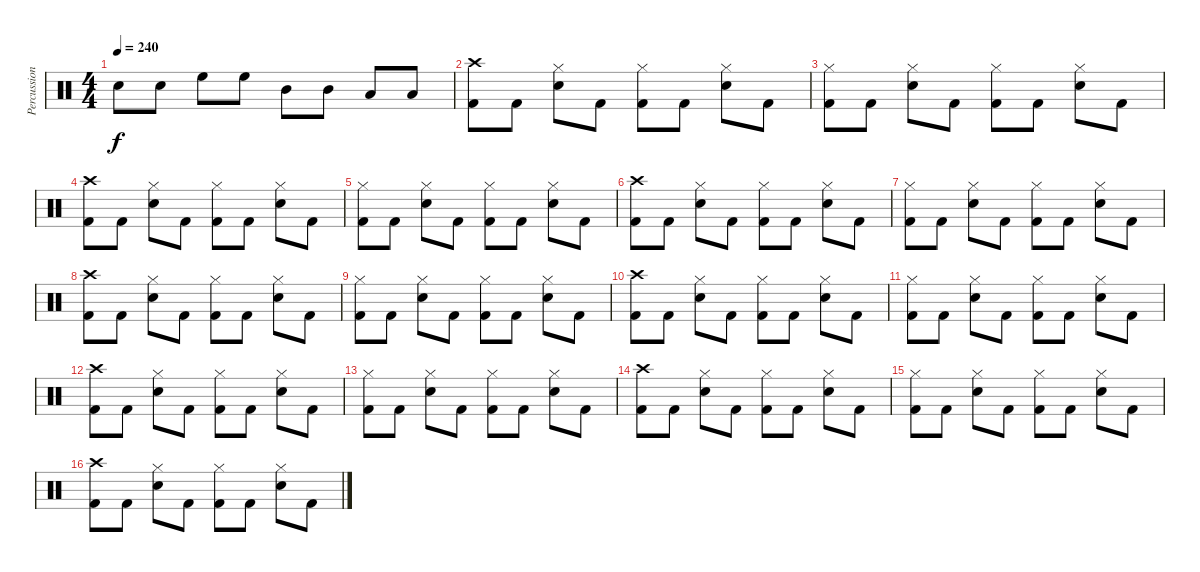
\track ("Percussion" "Percussion") {instrument percussion}
\staff {score}
\articulation defaults
\ts (4 4)
\tempo 240
\clef neutral
\ks c "Snare (hit) 2".8{dy f} "Snare (hit) 2".8 "High Floor Tom (hit)".8 "High Floor Tom (hit)".8 "Mid Tom (hit)".8 "Mid Tom (hit)".8 "Low Tom (hit)".8 "Low Tom (hit)".8
|
("Kick (hit) 2" "Crash high (hit)").8 "Kick (hit) 2".8 ("Snare (hit) 2" "Hi-Hat (closed)").8 "Kick (hit) 2".8 ("Kick (hit) 2" "Hi-Hat (closed)").8 "Kick (hit) 2".8 ("Snare (hit) 2" "Hi-Hat (closed)").8 "Kick (hit) 2".8 |
("Kick (hit) 2" "Hi-Hat (closed)").8 "Kick (hit) 2".8 ("Snare (hit) 2" "Hi-Hat (closed)").8 "Kick (hit) 2".8 ("Kick (hit) 2" "Hi-Hat (closed)").8 "Kick (hit) 2".8 ("Snare (hit) 2" "Hi-Hat (closed)").8 "Kick (hit) 2".8 |
("Kick (hit) 2" "Crash high (hit)").8 "Kick (hit) 2".8 ("Snare (hit) 2" "Hi-Hat (closed)").8 "Kick (hit) 2".8 ("Kick (hit) 2" "Hi-Hat (closed)").8 "Kick (hit) 2".8 ("Snare (hit) 2" "Hi-Hat (closed)").8 "Kick (hit) 2".8 |
("Kick (hit) 2" "Hi-Hat (closed)").8 "Kick (hit) 2".8 ("Snare (hit) 2" "Hi-Hat (closed)").8 "Kick (hit) 2".8 ("Kick (hit) 2" "Hi-Hat (closed)").8 "Kick (hit) 2".8 ("Snare (hit) 2" "Hi-Hat (closed)").8 "Kick (hit) 2".8 |
("Kick (hit) 2" "Crash high (hit)").8 "Kick (hit) 2".8 ("Snare (hit) 2" "Hi-Hat (closed)").8 "Kick (hit) 2".8 ("Kick (hit) 2" "Hi-Hat (closed)").8 "Kick (hit) 2".8 ("Snare (hit) 2" "Hi-Hat (closed)").8 "Kick (hit) 2".8 |
("Kick (hit) 2" "Hi-Hat (closed)").8 "Kick (hit) 2".8 ("Snare (hit) 2" "Hi-Hat (closed)").8 "Kick (hit) 2".8 ("Kick (hit) 2" "Hi-Hat (closed)").8 "Kick (hit) 2".8 ("Snare (hit) 2" "Hi-Hat (closed)").8 "Kick (hit) 2".8 |
("Kick (hit) 2" "Crash high (hit)").8 "Kick (hit) 2".8 ("Snare (hit) 2" "Hi-Hat (closed)").8 "Kick (hit) 2".8 ("Kick (hit) 2" "Hi-Hat (closed)").8 "Kick (hit) 2".8 ("Snare (hit) 2" "Hi-Hat (closed)").8 "Kick (hit) 2".8 |
("Kick (hit) 2" "Hi-Hat (closed)").8 "Kick (hit) 2".8 ("Snare (hit) 2" "Hi-Hat (closed)").8 "Kick (hit) 2".8 ("Kick (hit) 2" "Hi-Hat (closed)").8 "Kick (hit) 2".8 ("Snare (hit) 2" "Hi-Hat (closed)").8 "Kick (hit) 2".8 |
("Kick (hit) 2" "Crash high (hit)").8 "Kick (hit) 2".8 ("Snare (hit) 2" "Hi-Hat (closed)").8 "Kick (hit) 2".8 ("Kick (hit) 2" "Hi-Hat (closed)").8 "Kick (hit) 2".8 ("Snare (hit) 2" "Hi-Hat (closed)").8 "Kick (hit) 2".8 |
("Kick (hit) 2" "Hi-Hat (closed)").8 "Kick (hit) 2".8 ("Snare (hit) 2" "Hi-Hat (closed)").8 "Kick (hit) 2".8 ("Kick (hit) 2" "Hi-Hat (closed)").8 "Kick (hit) 2".8 ("Snare (hit) 2" "Hi-Hat (closed)").8 "Kick (hit) 2".8 |
("Kick (hit) 2" "Crash high (hit)").8 "Kick (hit) 2".8 ("Snare (hit) 2" "Hi-Hat (closed)").8 "Kick (hit) 2".8 ("Kick (hit) 2" "Hi-Hat (closed)").8 "Kick (hit) 2".8 ("Snare (hit) 2" "Hi-Hat (closed)").8 "Kick (hit) 2".8 |
("Kick (hit) 2" "Hi-Hat (closed)").8 "Kick (hit) 2".8 ("Snare (hit) 2" "Hi-Hat (closed)").8 "Kick (hit) 2".8 ("Kick (hit) 2" "Hi-Hat (closed)").8 "Kick (hit) 2".8 ("Snare (hit) 2" "Hi-Hat (closed)").8 "Kick (hit) 2".8 |
("Kick (hit) 2" "Crash high (hit)").8 "Kick (hit) 2".8 ("Snare (hit) 2" "Hi-Hat (closed)").8 "Kick (hit) 2".8 ("Kick (hit) 2" "Hi-Hat (closed)").8 "Kick (hit) 2".8 ("Snare (hit) 2" "Hi-Hat (closed)").8 "Kick (hit) 2".8 |
("Kick (hit) 2" "Hi-Hat (closed)").8 "Kick (hit) 2".8 ("Snare (hit) 2" "Hi-Hat (closed)").8 "Kick (hit) 2".8 ("Kick (hit) 2" "Hi-Hat (closed)").8 "Kick (hit) 2".8 ("Snare (hit) 2" "Hi-Hat (closed)").8 "Kick (hit) 2".8 |
("Kick (hit) 2" "Crash high (hit)").8 "Kick (hit) 2".8 ("Snare (hit) 2" "Hi-Hat (closed)").8 "Kick (hit) 2".8 ("Kick (hit) 2" "Hi-Hat (closed)").8 "Kick (hit) 2".8 ("Snare (hit) 2" "Hi-Hat (closed)").8 "Kick (hit) 2".8
